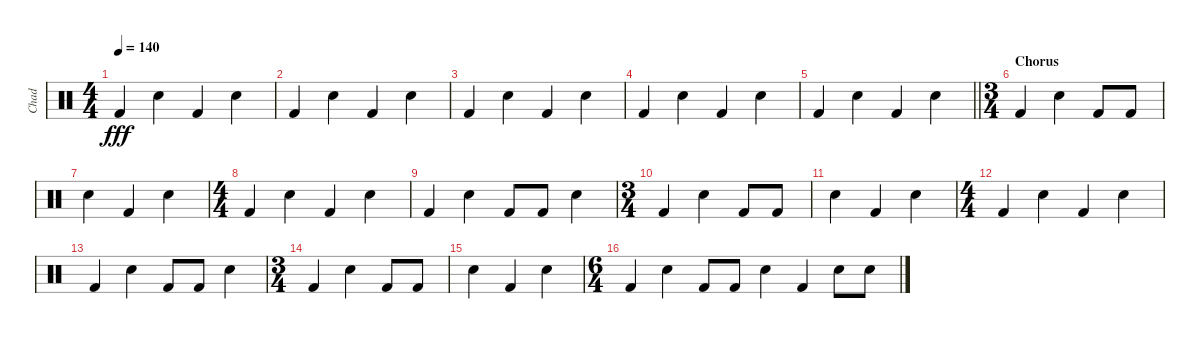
\track ("Chad" "Chad") {instrument percussion}
\staff {score}
\articulation defaults
\ts (4 4)
\tempo 140
\clef neutral
\ks c "Kick (hit) 2".4{dy fff} "Electric Snare (hit)".4 "Kick (hit) 2".4 "Electric Snare (hit)".4
|
"Kick (hit) 2".4 "Electric Snare (hit)".4 "Kick (hit) 2".4 "Electric Snare (hit)".4 |
"Kick (hit) 2".4 "Electric Snare (hit)".4 "Kick (hit) 2".4 "Electric Snare (hit)".4 |
"Kick (hit) 2".4 "Electric Snare (hit)".4 "Kick (hit) 2".4 "Electric Snare (hit)".4 |
\barLineRight lightlight "Kick (hit) 2".4 "Electric Snare (hit)".4 "Kick (hit) 2".4 "Electric Snare (hit)".4
|
\ts (3 4)
\section ("" "Chorus")
"Kick (hit) 2".4 "Electric Snare (hit)".4 "Kick (hit) 2".8 "Kick (hit) 2".8 |
"Electric Snare (hit)".4 "Kick (hit) 2".4 "Electric Snare (hit)".4 |
\ts (4 4)
"Kick (hit) 2".4 "Electric Snare (hit)".4 "Kick (hit) 2".4 "Electric Snare (hit)".4 |
"Kick (hit) 2".4 "Electric Snare (hit)".4 "Kick (hit) 2".8 "Kick (hit) 2".8 "Electric Snare (hit)".4 |
\ts (3 4)
"Kick (hit) 2".4 "Electric Snare (hit)".4 "Kick (hit) 2".8 "Kick (hit) 2".8 |
"Electric Snare (hit)".4 "Kick (hit) 2".4 "Electric Snare (hit)".4 |
\ts (4 4)
"Kick (hit) 2".4 "Electric Snare (hit)".4 "Kick (hit) 2".4 "Electric Snare (hit)".4 |
"Kick (hit) 2".4 "Electric Snare (hit)".4 "Kick (hit) 2".8 "Kick (hit) 2".8 "Electric Snare (hit)".4 |
\ts (3 4)
"Kick (hit) 2".4 "Electric Snare (hit)".4 "Kick (hit) 2".8 "Kick (hit) 2".8 |
"Electric Snare (hit)".4 "Kick (hit) 2".4 "Electric Snare (hit)".4 |
\ts (6 4)
"Kick (hit) 2".4 "Electric Snare (hit)".4 "Kick (hit) 2".8 "Kick (hit) 2".8 "Electric Snare (hit)".4 "Kick (hit) 2".4 "Electric Snare (hit)".8 "Electric Snare (hit)".8
